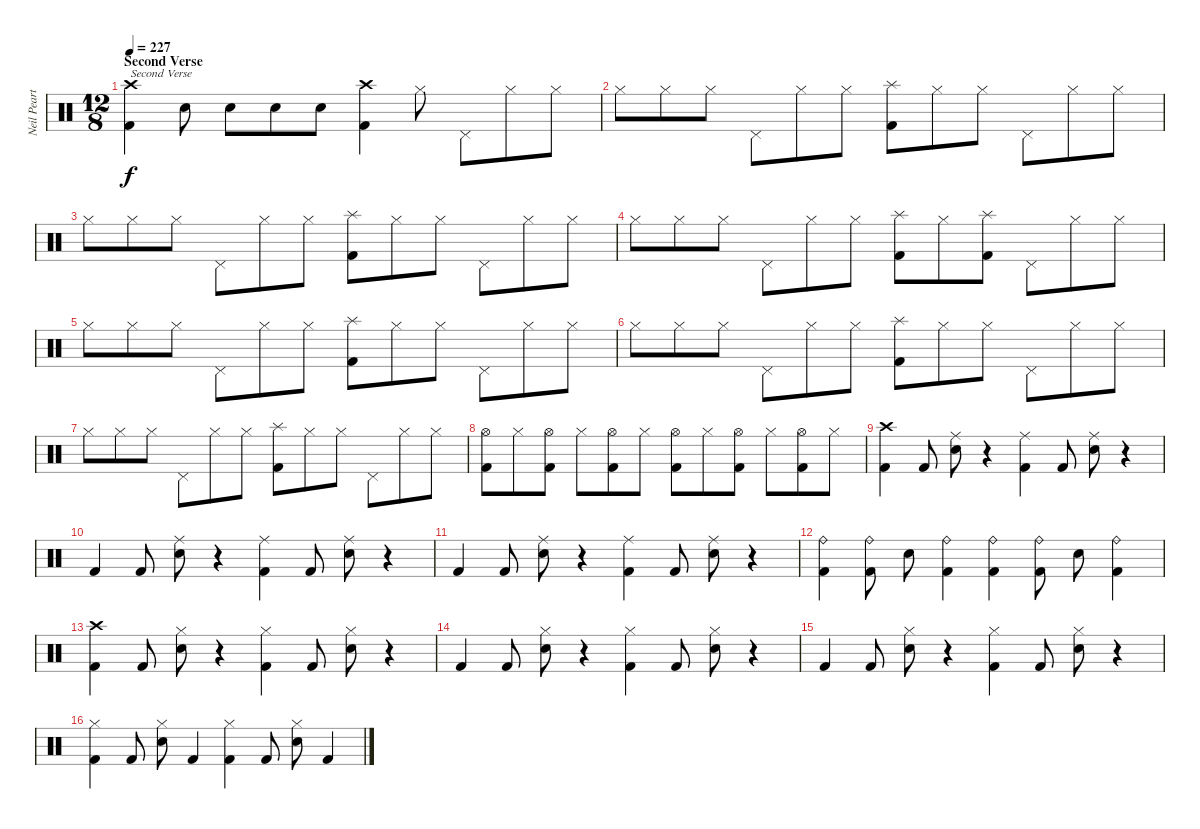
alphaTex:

\track ("Neil Peart" "Neil Peart") {instrument percussion}
\staff {score}
\articulation defaults
\ts (12 8)
\section ("" "Second Verse")
\tempo 227
\clef neutral
\ks c
("Crash high (hit)" "Kick (hit) 2").4{txt "Second Verse" dy f} "Electric Snare (hit)".8 "Electric Snare (hit)".8 "Electric Snare (hit)".8 "Electric Snare (hit)".8 ("Crash high (hit)" "Kick (hit) 2").4 "Hi-Hat (closed)".8 "Pedal Hi-Hat (hit)".8 "Hi-Hat (closed)".8 "Hi-Hat (closed)".8 |
"Hi-Hat (closed)".8 "Hi-Hat (closed)".8 "Hi-Hat (closed)".8 "Pedal Hi-Hat (hit)".8 "Hi-Hat (closed)".8 "Hi-Hat (closed)".8 ("Splash (hit)" "Kick (hit) 2").8 "Hi-Hat (closed)".8 "Hi-Hat (closed)".8 "Pedal Hi-Hat (hit)".8 "Hi-Hat (closed)".8 "Hi-Hat (closed)".8 |
"Hi-Hat (closed)".8 "Hi-Hat (closed)".8 "Hi-Hat (closed)".8 "Pedal Hi-Hat (hit)".8 "Hi-Hat (closed)".8 "Hi-Hat (closed)".8 ("Splash (hit)" "Kick (hit) 2").8 "Hi-Hat (closed)".8 "Hi-Hat (closed)".8 "Pedal Hi-Hat (hit)".8 "Hi-Hat (closed)".8 "Hi-Hat (closed)".8 |
"Hi-Hat (closed)".8 "Hi-Hat (closed)".8 "Hi-Hat (closed)".8 "Pedal Hi-Hat (hit)".8 "Hi-Hat (closed)".8 "Hi-Hat (closed)".8 ("Splash (hit)" "Kick (hit) 2").8 "Hi-Hat (closed)".8 ("Splash (hit)" "Kick (hit) 2").8 "Pedal Hi-Hat (hit)".8 "Hi-Hat (closed)".8 "Hi-Hat (closed)".8 |
"Hi-Hat (closed)".8 "Hi-Hat (closed)".8 "Hi-Hat (closed)".8 "Pedal Hi-Hat (hit)".8 "Hi-Hat (closed)".8 "Hi-Hat (closed)".8 ("Splash (hit)" "Kick (hit) 2").8 "Hi-Hat (closed)".8 "Hi-Hat (closed)".8 "Pedal Hi-Hat (hit)".8 "Hi-Hat (closed)".8 "Hi-Hat (closed)".8 |
"Hi-Hat (closed)".8 "Hi-Hat (closed)".8 "Hi-Hat (closed)".8 "Pedal Hi-Hat (hit)".8 "Hi-Hat (closed)".8 "Hi-Hat (closed)".8 ("Splash (hit)" "Kick (hit) 2").8 "Hi-Hat (closed)".8 "Hi-Hat (closed)".8 "Pedal Hi-Hat (hit)".8 "Hi-Hat (closed)".8 "Hi-Hat (closed)".8 |
"Hi-Hat (closed)".8 "Hi-Hat (closed)".8 "Hi-Hat (closed)".8 "Pedal Hi-Hat (hit)".8 "Hi-Hat (closed)".8 "Hi-Hat (closed)".8 ("Splash (hit)" "Kick (hit) 2").8 "Hi-Hat (closed)".8 "Hi-Hat (closed)".8 "Pedal Hi-Hat (hit)".8 "Hi-Hat (closed)".8 "Hi-Hat (closed)".8 |
("Hi-Hat (open)" "Kick (hit) 2").8 "Hi-Hat (closed)".8 ("Hi-Hat (open)" "Kick (hit) 2").8 "Hi-Hat (closed)".8 ("Hi-Hat (open)" "Kick (hit) 2").8 "Hi-Hat (closed)".8 ("Hi-Hat (open)" "Kick (hit) 2").8 "Hi-Hat (closed)".8 ("Hi-Hat (open)" "Kick (hit) 2").8 "Hi-Hat (closed)".8 ("Hi-Hat (open)" "Kick (hit) 2").8 "Hi-Hat (closed)".8 |
("Crash high (hit)" "Kick (hit) 2").4 "Kick (hit) 2".8 ("Electric Snare (hit)" "Ride (middle)").8 r.4 ("Ride (middle)" "Kick (hit) 2").4 "Kick (hit) 2".8 ("Electric Snare (hit)" "Ride (middle)").8 r.4 |
"Kick (hit) 2".4 "Kick (hit) 2".8 ("Electric Snare (hit)" "Ride (middle)").8 r.4 ("Ride (middle)" "Kick (hit) 2").4 "Kick (hit) 2".8 ("Electric Snare (hit)" "Ride (middle)").8 r.4 |
"Kick (hit) 2".4 "Kick (hit) 2".8 ("Electric Snare (hit)" "Ride (middle)").8 r.4 ("Ride (middle)" "Kick (hit) 2").4 "Kick (hit) 2".8 ("Electric Snare (hit)" "Ride (middle)").8 r.4 |
("Ride (bell)" "Kick (hit) 2").4 ("Ride (bell)" "Kick (hit) 2").8 "Electric Snare (hit)".8 ("Ride (bell)" "Kick (hit) 2").4 ("Ride (bell)" "Kick (hit) 2").4 ("Ride (bell)" "Kick (hit) 2").8 "Electric Snare (hit)".8 ("Ride (bell)" "Kick (hit) 2").4 |
("Crash high (hit)" "Kick (hit) 2").4 "Kick (hit) 2".8 ("Electric Snare (hit)" "Hi-Hat (closed)").8 r.4 ("Hi-Hat (closed)" "Kick (hit) 2").4 "Kick (hit) 2".8 ("Electric Snare (hit)" "Hi-Hat (closed)").8 r.4 |
"Kick (hit) 2".4 "Kick (hit) 2".8 ("Electric Snare (hit)" "Hi-Hat (closed)").8 r.4 ("Hi-Hat (closed)" "Kick (hit) 2").4 "Kick (hit) 2".8 ("Electric Snare (hit)" "Hi-Hat (closed)").8 r.4 |
"Kick (hit) 2".4 "Kick (hit) 2".8 ("Electric Snare (hit)" "Hi-Hat (closed)").8 r.4 ("Hi-Hat (closed)" "Kick (hit) 2").4 "Kick (hit) 2".8 ("Electric Snare (hit)" "Hi-Hat (closed)").8 r.4 |
("Hi-Hat (closed)" "Kick (hit) 2").4 "Kick (hit) 2".8 ("Electric Snare (hit)" "Hi-Hat (closed)").8 "Kick (hit) 2".4 ("Hi-Hat (closed)" "Kick (hit) 2").4 "Kick (hit) 2".8 ("Electric Snare (hit)" "Hi-Hat (closed)").8 "Kick (hit) 2".4
